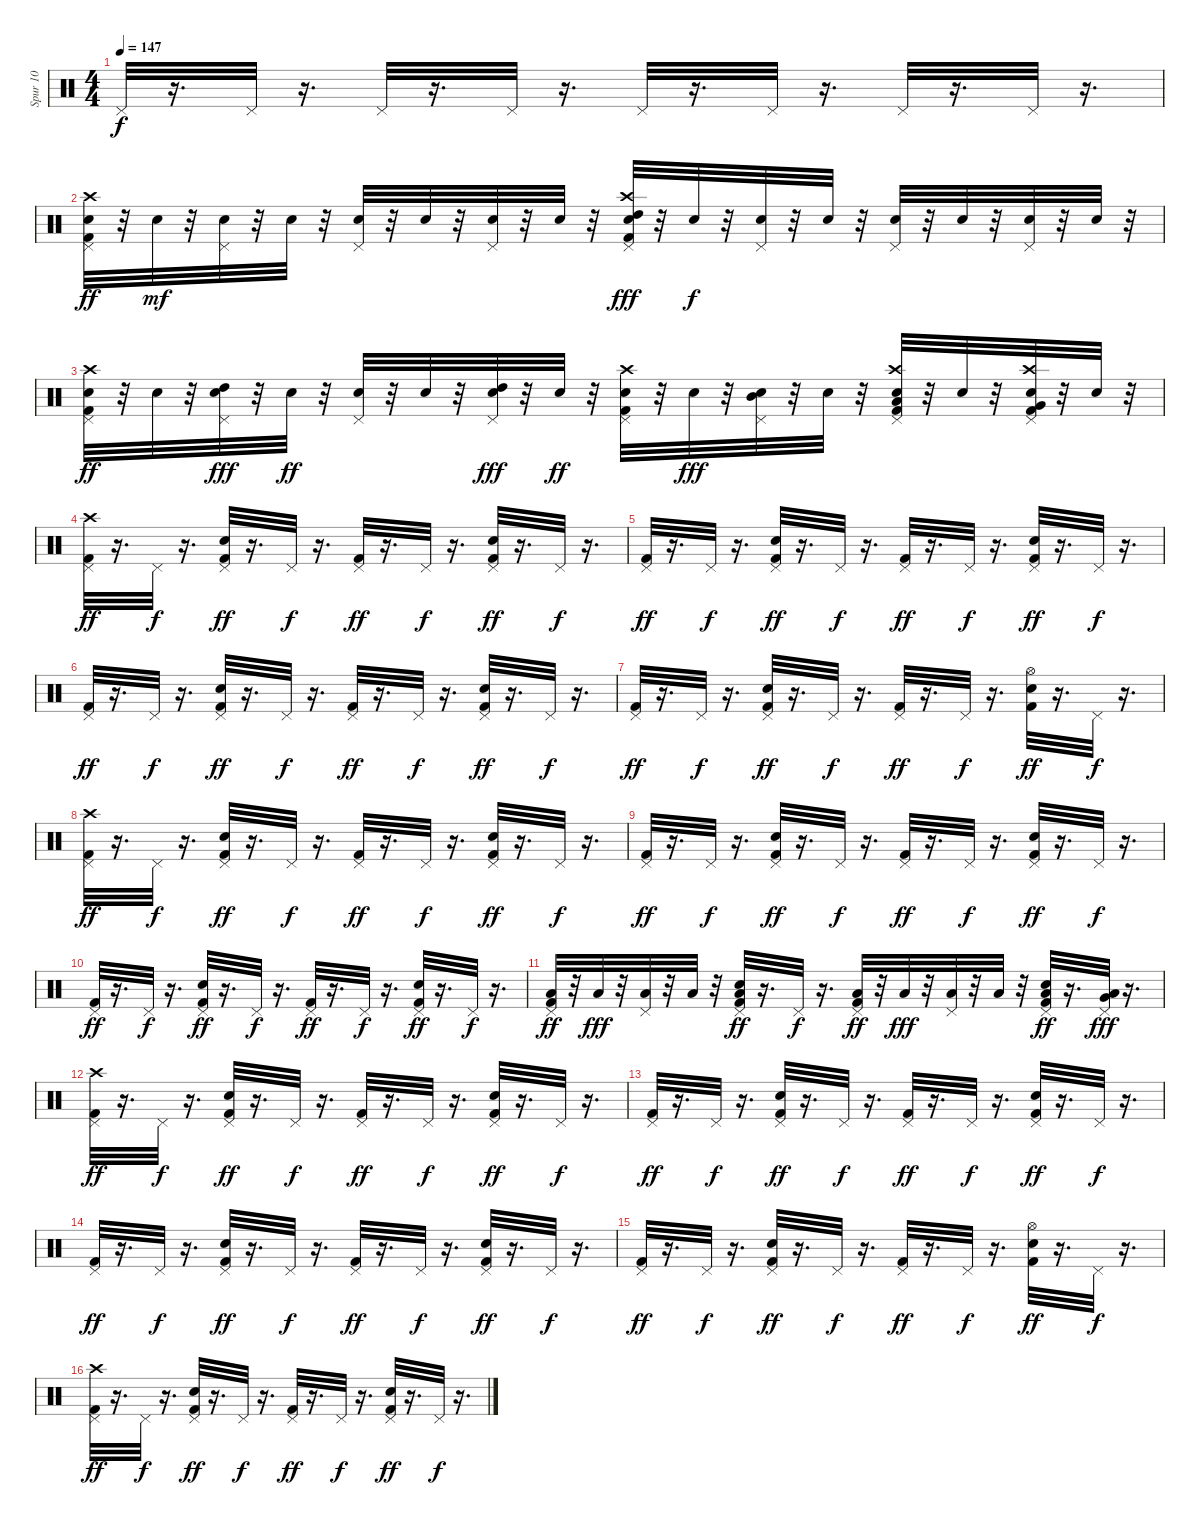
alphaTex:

\track ("Spur 10" "Spur 10") {instrument percussion}
\staff {score}
\articulation defaults
\ts (4 4)
\tempo 147
\clef neutral
\ks c "Pedal Hi-Hat (hit)".32{dy f}
r.16{d} "Pedal Hi-Hat (hit)".32 r.16{d} "Pedal Hi-Hat (hit)".32 r.16{d} "Pedal Hi-Hat (hit)".32 r.16{d} "Pedal Hi-Hat (hit)".32 r.16{d} "Pedal Hi-Hat (hit)".32 r.16{d} "Pedal Hi-Hat (hit)".32 r.16{d} "Pedal Hi-Hat (hit)".32 r.16{d} |
("Electric Snare (hit)" "Kick (hit) 2" "Crash high (hit)" "Pedal Hi-Hat (hit)").32{dy ff} r.32 "Electric Snare (hit)".32{dy mf} r.32 ("Electric Snare (hit)" "Pedal Hi-Hat (hit)").32 r.32 "Electric Snare (hit)".32 r.32 ("Electric Snare (hit)" "Pedal Hi-Hat (hit)").32 r.32 "Electric Snare (hit)".32 r.32 ("Electric Snare (hit)" "Pedal Hi-Hat (hit)").32 r.32 "Electric Snare (hit)".32 r.32 ("Electric Snare (hit)" "Kick (hit) 2" "Crash high (hit)" "Pedal Hi-Hat (hit)" "High Tom (hit)").32{dy fff} r.32 "Electric Snare (hit)".32{dy f} r.32 ("Electric Snare (hit)" "Pedal Hi-Hat (hit)").32 r.32 "Electric Snare (hit)".32 r.32 ("Electric Snare (hit)" "Pedal Hi-Hat (hit)").32 r.32 "Electric Snare (hit)".32 r.32 ("Electric Snare (hit)" "Pedal Hi-Hat (hit)").32 r.32 "Electric Snare (hit)".32 r.32 |
("Electric Snare (hit)" "Crash high (hit)" "Kick (hit) 2" "Pedal Hi-Hat (hit)").32{dy ff} r.32 "Electric Snare (hit)".32 r.32 ("Electric Snare (hit)" "Pedal Hi-Hat (hit)" "High Tom (hit)").32{dy fff} r.32 "Electric Snare (hit)".32{dy ff} r.32 ("Electric Snare (hit)" "Pedal Hi-Hat (hit)").32 r.32 "Electric Snare (hit)".32 r.32 ("Electric Snare (hit)" "Pedal Hi-Hat (hit)" "High Tom (hit)").32{dy fff} r.32 "Electric Snare (hit)".32{dy ff} r.32 ("Electric Snare (hit)" "Kick (hit) 2" "Crash high (hit)" "Pedal Hi-Hat (hit)").32 r.32 "Electric Snare (hit)".32{dy fff} r.32 ("Electric Snare (hit)" "Pedal Hi-Hat (hit)" "Mid Tom (hit)").32 r.32 "Electric Snare (hit)".32 r.32 ("Electric Snare (hit)" "Kick (hit) 2" "Crash high (hit)" "Pedal Hi-Hat (hit)" "Low Tom (hit)").32 r.32 "Electric Snare (hit)".32 r.32 ("Electric Snare (hit)" "Kick (hit) 2" "Crash high (hit)" "Pedal Hi-Hat (hit)" "Very Low Tom (hit)").32 r.32 "Electric Snare (hit)".32 r.32 |
("Pedal Hi-Hat (hit)" "Kick (hit) 2" "Crash high (hit)").32{dy ff} r.16{d} "Pedal Hi-Hat (hit)".32{dy f} r.16{d} ("Snare (hit) 2" "Kick (hit) 2" "Pedal Hi-Hat (hit)").32{dy ff} r.16{d} "Pedal Hi-Hat (hit)".32{dy f} r.16{d} ("Kick (hit) 2" "Pedal Hi-Hat (hit)").32{dy ff} r.16{d} "Pedal Hi-Hat (hit)".32{dy f} r.16{d} ("Snare (hit) 2" "Pedal Hi-Hat (hit)" "Kick (hit) 2").32{dy ff} r.16{d} "Pedal Hi-Hat (hit)".32{dy f} r.16{d} |
("Pedal Hi-Hat (hit)" "Kick (hit) 2").32{dy ff} r.16{d} "Pedal Hi-Hat (hit)".32{dy f} r.16{d} ("Snare (hit) 2" "Kick (hit) 2" "Pedal Hi-Hat (hit)").32{dy ff} r.16{d} "Pedal Hi-Hat (hit)".32{dy f} r.16{d} ("Kick (hit) 2" "Pedal Hi-Hat (hit)").32{dy ff} r.16{d} "Pedal Hi-Hat (hit)".32{dy f} r.16{d} ("Snare (hit) 2" "Pedal Hi-Hat (hit)" "Kick (hit) 2").32{dy ff} r.16{d} "Pedal Hi-Hat (hit)".32{dy f} r.16{d} |
("Pedal Hi-Hat (hit)" "Kick (hit) 2").32{dy ff} r.16{d} "Pedal Hi-Hat (hit)".32{dy f} r.16{d} ("Snare (hit) 2" "Kick (hit) 2" "Pedal Hi-Hat (hit)").32{dy ff} r.16{d} "Pedal Hi-Hat (hit)".32{dy f} r.16{d} ("Kick (hit) 2" "Pedal Hi-Hat (hit)").32{dy ff} r.16{d} "Pedal Hi-Hat (hit)".32{dy f} r.16{d} ("Snare (hit) 2" "Pedal Hi-Hat (hit)" "Kick (hit) 2").32{dy ff} r.16{d} "Pedal Hi-Hat (hit)".32{dy f} r.16{d} |
("Pedal Hi-Hat (hit)" "Kick (hit) 2").32{dy ff} r.16{d} "Pedal Hi-Hat (hit)".32{dy f} r.16{d} ("Snare (hit) 2" "Kick (hit) 2" "Pedal Hi-Hat (hit)").32{dy ff} r.16{d} "Pedal Hi-Hat (hit)".32{dy f} r.16{d} ("Kick (hit) 2" "Pedal Hi-Hat (hit)").32{dy ff} r.16{d} "Pedal Hi-Hat (hit)".32{dy f} r.16{d} ("Snare (hit) 2" "Hi-Hat (open)" "Kick (hit) 2").32{dy ff} r.16{d} "Pedal Hi-Hat (hit)".32{dy f} r.16{d} |
("Pedal Hi-Hat (hit)" "Kick (hit) 2" "Crash high (hit)").32{dy ff} r.16{d} "Pedal Hi-Hat (hit)".32{dy f} r.16{d} ("Snare (hit) 2" "Kick (hit) 2" "Pedal Hi-Hat (hit)").32{dy ff} r.16{d} "Pedal Hi-Hat (hit)".32{dy f} r.16{d} ("Kick (hit) 2" "Pedal Hi-Hat (hit)").32{dy ff} r.16{d} "Pedal Hi-Hat (hit)".32{dy f} r.16{d} ("Snare (hit) 2" "Pedal Hi-Hat (hit)" "Kick (hit) 2").32{dy ff} r.16{d} "Pedal Hi-Hat (hit)".32{dy f} r.16{d} |
("Pedal Hi-Hat (hit)" "Kick (hit) 2").32{dy ff} r.16{d} "Pedal Hi-Hat (hit)".32{dy f} r.16{d} ("Snare (hit) 2" "Kick (hit) 2" "Pedal Hi-Hat (hit)").32{dy ff} r.16{d} "Pedal Hi-Hat (hit)".32{dy f} r.16{d} ("Kick (hit) 2" "Pedal Hi-Hat (hit)").32{dy ff} r.16{d} "Pedal Hi-Hat (hit)".32{dy f} r.16{d} ("Snare (hit) 2" "Pedal Hi-Hat (hit)" "Kick (hit) 2").32{dy ff} r.16{d} "Pedal Hi-Hat (hit)".32{dy f} r.16{d} |
("Pedal Hi-Hat (hit)" "Kick (hit) 2").32{dy ff} r.16{d} "Pedal Hi-Hat (hit)".32{dy f} r.16{d} ("Snare (hit) 2" "Kick (hit) 2" "Pedal Hi-Hat (hit)").32{dy ff} r.16{d} "Pedal Hi-Hat (hit)".32{dy f} r.16{d} ("Kick (hit) 2" "Pedal Hi-Hat (hit)").32{dy ff} r.16{d} "Pedal Hi-Hat (hit)".32{dy f} r.16{d} ("Snare (hit) 2" "Pedal Hi-Hat (hit)" "Kick (hit) 2").32{dy ff} r.16{d} "Pedal Hi-Hat (hit)".32{dy f} r.16{d} |
("Low Tom (hit)" "Pedal Hi-Hat (hit)" "Kick (hit) 2").32{dy ff} r.32 "Low Tom (hit)".32{dy fff} r.32 ("Low Tom (hit)" "Pedal Hi-Hat (hit)").32 r.32 "Low Tom (hit)".32 r.32 ("Low Tom (hit)" "Snare (hit) 2" "Kick (hit) 2" "Pedal Hi-Hat (hit)").32{dy ff} r.16{d} "Pedal Hi-Hat (hit)".32{dy f} r.16{d} ("Low Floor Tom (hit)" "Kick (hit) 2" "Pedal Hi-Hat (hit)").32{dy ff} r.32 "Low Floor Tom (hit)".32{dy fff} r.32 ("Low Floor Tom (hit)" "Pedal Hi-Hat (hit)").32 r.32 "Low Floor Tom (hit)".32 r.32 ("Low Floor Tom (hit)" "Snare (hit) 2" "Pedal Hi-Hat (hit)" "Kick (hit) 2").32{dy ff} r.16{d} ("Low Floor Tom (hit)" "Very Low Tom (hit)" "Pedal Hi-Hat (hit)").32{dy fff} r.16{d} |
("Pedal Hi-Hat (hit)" "Kick (hit) 2" "Crash high (hit)").32{dy ff} r.16{d} "Pedal Hi-Hat (hit)".32{dy f} r.16{d} ("Snare (hit) 2" "Kick (hit) 2" "Pedal Hi-Hat (hit)").32{dy ff} r.16{d} "Pedal Hi-Hat (hit)".32{dy f} r.16{d} ("Kick (hit) 2" "Pedal Hi-Hat (hit)").32{dy ff} r.16{d} "Pedal Hi-Hat (hit)".32{dy f} r.16{d} ("Snare (hit) 2" "Pedal Hi-Hat (hit)" "Kick (hit) 2").32{dy ff} r.16{d} "Pedal Hi-Hat (hit)".32{dy f} r.16{d} |
("Pedal Hi-Hat (hit)" "Kick (hit) 2").32{dy ff} r.16{d} "Pedal Hi-Hat (hit)".32{dy f} r.16{d} ("Snare (hit) 2" "Kick (hit) 2" "Pedal Hi-Hat (hit)").32{dy ff} r.16{d} "Pedal Hi-Hat (hit)".32{dy f} r.16{d} ("Kick (hit) 2" "Pedal Hi-Hat (hit)").32{dy ff} r.16{d} "Pedal Hi-Hat (hit)".32{dy f} r.16{d} ("Snare (hit) 2" "Pedal Hi-Hat (hit)" "Kick (hit) 2").32{dy ff} r.16{d} "Pedal Hi-Hat (hit)".32{dy f} r.16{d} |
("Pedal Hi-Hat (hit)" "Kick (hit) 2").32{dy ff} r.16{d} "Pedal Hi-Hat (hit)".32{dy f} r.16{d} ("Snare (hit) 2" "Kick (hit) 2" "Pedal Hi-Hat (hit)").32{dy ff} r.16{d} "Pedal Hi-Hat (hit)".32{dy f} r.16{d} ("Kick (hit) 2" "Pedal Hi-Hat (hit)").32{dy ff} r.16{d} "Pedal Hi-Hat (hit)".32{dy f} r.16{d} ("Snare (hit) 2" "Pedal Hi-Hat (hit)" "Kick (hit) 2").32{dy ff} r.16{d} "Pedal Hi-Hat (hit)".32{dy f} r.16{d} |
("Pedal Hi-Hat (hit)" "Kick (hit) 2").32{dy ff} r.16{d} "Pedal Hi-Hat (hit)".32{dy f} r.16{d} ("Snare (hit) 2" "Kick (hit) 2" "Pedal Hi-Hat (hit)").32{dy ff} r.16{d} "Pedal Hi-Hat (hit)".32{dy f} r.16{d} ("Kick (hit) 2" "Pedal Hi-Hat (hit)").32{dy ff} r.16{d} "Pedal Hi-Hat (hit)".32{dy f} r.16{d} ("Snare (hit) 2" "Hi-Hat (open)" "Kick (hit) 2").32{dy ff} r.16{d} "Pedal Hi-Hat (hit)".32{dy f} r.16{d} |
("Pedal Hi-Hat (hit)" "Kick (hit) 2" "Crash high (hit)").32{dy ff} r.16{d} "Pedal Hi-Hat (hit)".32{dy f} r.16{d} ("Snare (hit) 2" "Kick (hit) 2" "Pedal Hi-Hat (hit)").32{dy ff} r.16{d} "Pedal Hi-Hat (hit)".32{dy f} r.16{d} ("Kick (hit) 2" "Pedal Hi-Hat (hit)").32{dy ff} r.16{d} "Pedal Hi-Hat (hit)".32{dy f} r.16{d} ("Snare (hit) 2" "Pedal Hi-Hat (hit)" "Kick (hit) 2").32{dy ff} r.16{d} "Pedal Hi-Hat (hit)".32{dy f} r.16{d}
